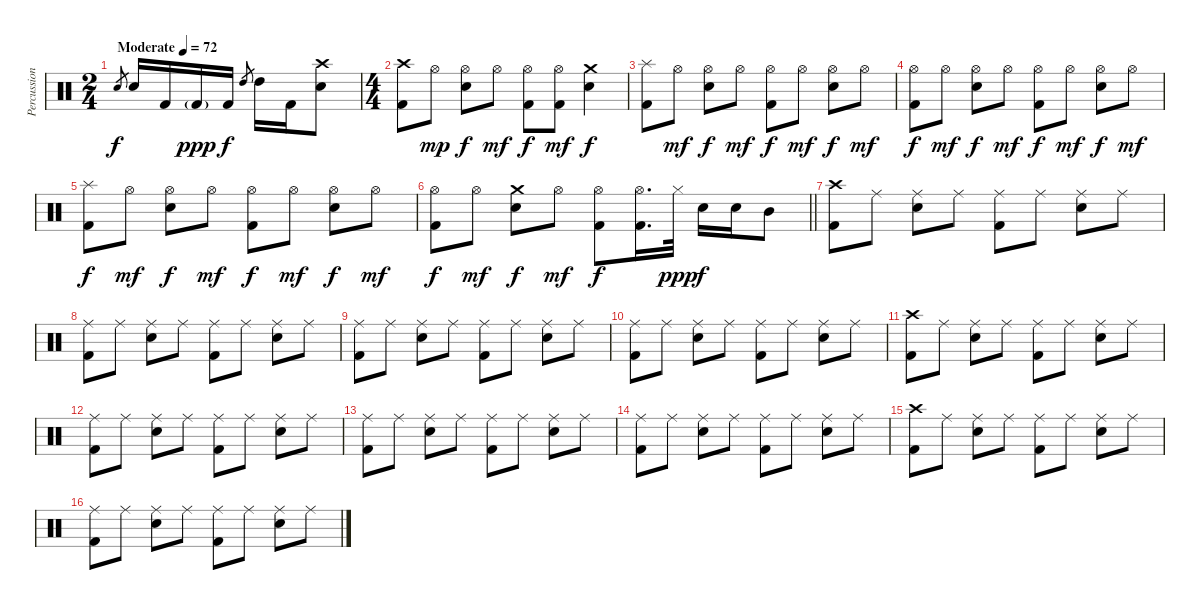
\track ("Percussion" "Percussion") {instrument percussion}
\staff {score}
\articulation defaults
\ts (2 4)
\tempo (72 "Moderate")
\clef neutral
\ks c "Electric Snare (hit)".8{gr dy f} "Electric Snare (hit)".16 "Kick (hit) 2".16 "Kick (hit) 2"{g}.16{dy ppp} "Kick (hit) 2".16{dy f} "High Tom (hit)".8{gr} "High Tom (hit)".16 "Kick (hit) 2".16
("Crash high (hit)" "Electric Snare (hit)").8 |
\ts (4 4)
("Crash high (hit)" "Kick (hit) 2").8 "Hi-Hat (open)".8{dy mp} ("Hi-Hat (open)" "Electric Snare (hit)").8{dy f} "Hi-Hat (open)".8{dy mf} ("Hi-Hat (open)" "Kick (hit) 2").8{dy f} ("Hi-Hat (open)" "Kick (hit) 2").8{dy mf} ("Crash medium (hit)" "Electric Snare (hit)").4{dy f} |
("Splash (hit)" "Kick (hit) 2").8 "Hi-Hat (open)".8{dy mf} ("Hi-Hat (open)" "Electric Snare (hit)").8{dy f} "Hi-Hat (open)".8{dy mf} ("Hi-Hat (open)" "Kick (hit) 2").8{dy f} "Hi-Hat (open)".8{dy mf} ("Hi-Hat (open)" "Electric Snare (hit)").8{dy f} "Hi-Hat (open)".8{dy mf} |
("Hi-Hat (open)" "Kick (hit) 2").8{dy f} "Hi-Hat (open)".8{dy mf} ("Hi-Hat (open)" "Electric Snare (hit)").8{dy f} "Hi-Hat (open)".8{dy mf} ("Hi-Hat (open)" "Kick (hit) 2").8{dy f} "Hi-Hat (open)".8{dy mf} ("Hi-Hat (open)" "Electric Snare (hit)").8{dy f} "Hi-Hat (open)".8{dy mf} |
("Splash (hit)" "Kick (hit) 2").8{dy f} "Hi-Hat (open)".8{dy mf} ("Hi-Hat (open)" "Electric Snare (hit)").8{dy f} "Hi-Hat (open)".8{dy mf} ("Hi-Hat (open)" "Kick (hit) 2").8{dy f} "Hi-Hat (open)".8{dy mf} ("Hi-Hat (open)" "Electric Snare (hit)").8{dy f} "Hi-Hat (open)".8{dy mf} |
\barLineRight lightlight
("Hi-Hat (open)" "Kick (hit) 2").8{dy f} "Hi-Hat (open)".8{dy mf} ("Crash medium (hit)" "Electric Snare (hit)").8{dy f} "Hi-Hat (open)".8{dy mf} ("Hi-Hat (open)" "Kick (hit) 2").8{dy f} ("Hi-Hat (open)" "Kick (hit) 2").16{d} "Hi-Hat (closed)".32{dy ppp} "Electric Snare (hit)".16{dy f} "Electric Snare (hit)".16 "Mid Tom (hit)".8 |
("Crash high (hit)" "Kick (hit) 2").8 "Ride (middle)".8 ("Ride (middle)" "Electric Snare (hit)").8 "Ride (middle)".8 ("Ride (middle)" "Kick (hit) 2").8 "Ride (middle)".8 ("Ride (middle)" "Electric Snare (hit)").8 "Ride (middle)".8 |
("Ride (middle)" "Kick (hit) 2").8 "Ride (middle)".8 ("Ride (middle)" "Electric Snare (hit)").8 "Ride (middle)".8 ("Ride (middle)" "Kick (hit) 2").8 "Ride (middle)".8 ("Ride (middle)" "Electric Snare (hit)").8 "Ride (middle)".8 |
("Ride (middle)" "Kick (hit) 2").8 "Ride (middle)".8 ("Ride (middle)" "Electric Snare (hit)").8 "Ride (middle)".8 ("Ride (middle)" "Kick (hit) 2").8 "Ride (middle)".8 ("Ride (middle)" "Electric Snare (hit)").8 "Ride (middle)".8 |
("Ride (middle)" "Kick (hit) 2").8 "Ride (middle)".8 ("Ride (middle)" "Electric Snare (hit)").8 "Ride (middle)".8 ("Ride (middle)" "Kick (hit) 2").8 "Ride (middle)".8 ("Ride (middle)" "Electric Snare (hit)").8 "Ride (middle)".8 |
("Crash high (hit)" "Kick (hit) 2").8 "Ride (middle)".8 ("Ride (middle)" "Electric Snare (hit)").8 "Ride (middle)".8 ("Ride (middle)" "Kick (hit) 2").8 "Ride (middle)".8 ("Ride (middle)" "Electric Snare (hit)").8 "Ride (middle)".8 |
("Ride (middle)" "Kick (hit) 2").8 "Ride (middle)".8 ("Ride (middle)" "Electric Snare (hit)").8 "Ride (middle)".8 ("Ride (middle)" "Kick (hit) 2").8 "Ride (middle)".8 ("Ride (middle)" "Electric Snare (hit)").8 "Ride (middle)".8 |
("Ride (middle)" "Kick (hit) 2").8 "Ride (middle)".8 ("Ride (middle)" "Electric Snare (hit)").8 "Ride (middle)".8 ("Ride (middle)" "Kick (hit) 2").8 "Ride (middle)".8 ("Ride (middle)" "Electric Snare (hit)").8 "Ride (middle)".8 |
("Ride (middle)" "Kick (hit) 2").8 "Ride (middle)".8 ("Ride (middle)" "Electric Snare (hit)").8 "Ride (middle)".8 ("Ride (middle)" "Kick (hit) 2").8 "Ride (middle)".8 ("Ride (middle)" "Electric Snare (hit)").8 "Ride (middle)".8 |
("Crash high (hit)" "Kick (hit) 2").8 "Ride (middle)".8 ("Ride (middle)" "Electric Snare (hit)").8 "Ride (middle)".8 ("Ride (middle)" "Kick (hit) 2").8 "Ride (middle)".8 ("Ride (middle)" "Electric Snare (hit)").8 "Ride (middle)".8 |
("Ride (middle)" "Kick (hit) 2").8 "Ride (middle)".8 ("Ride (middle)" "Electric Snare (hit)").8 "Ride (middle)".8 ("Ride (middle)" "Kick (hit) 2").8 "Ride (middle)".8 ("Ride (middle)" "Electric Snare (hit)").8 "Ride (middle)".8
